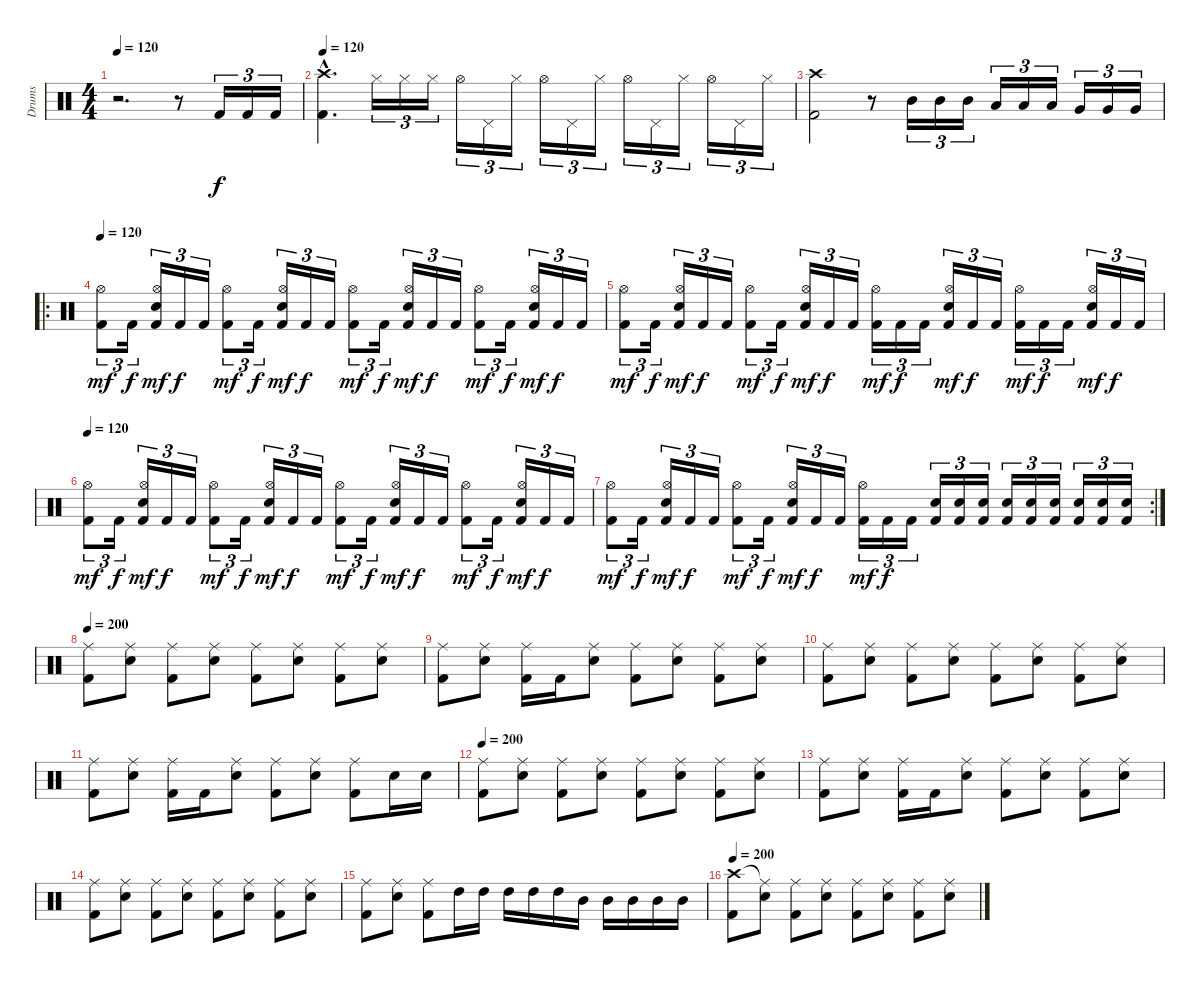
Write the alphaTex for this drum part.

\track ("Drums" "Drums") {instrument percussion}
\staff {score}
\articulation defaults
\ts (4 4)
\tempo 120
\clef neutral
\ks c
r.2{d dy f} r.8{volume 13} "Kick (hit) 2".16{tu (3 2)} "Kick (hit) 2".16{tu (3 2)} "Kick (hit) 2".16{tu (3 2)} |
\tempo 120
("Crash high (hit)"{hac} "Kick (hit) 2"{hac}).4{d} "Hi-Hat (closed)".16{tu (3 2)} "Hi-Hat (closed)".16{tu (3 2)} "Hi-Hat (closed)".16{tu (3 2)} "Hi-Hat (open)".16{tu (3 2)} "Pedal Hi-Hat (hit)".16{tu (3 2)} "Hi-Hat (closed)".16{tu (3 2)} "Hi-Hat (open)".16{tu (3 2)} "Pedal Hi-Hat (hit)".16{tu (3 2)} "Hi-Hat (closed)".16{tu (3 2)} "Hi-Hat (open)".16{tu (3 2)} "Pedal Hi-Hat (hit)".16{tu (3 2)} "Hi-Hat (closed)".16{tu (3 2)} "Hi-Hat (open)".16{tu (3 2)} "Pedal Hi-Hat (hit)".16{tu (3 2)} "Hi-Hat (closed)".16{tu (3 2)} |
("Crash high (hit)" "Kick (hit) 2").2 r.8 "Mid Tom (hit)".16{tu (3 2)} "Mid Tom (hit)".16{tu (3 2)} "Mid Tom (hit)".16{tu (3 2)} "Low Tom (hit)".16{tu (3 2)} "Low Tom (hit)".16{tu (3 2)} "Low Tom (hit)".16{tu (3 2)} "Very Low Tom (hit)".16{tu (3 2)} "Very Low Tom (hit)".16{tu (3 2)} "Very Low Tom (hit)".16{tu (3 2)} |
\ro
\tempo 120
("Hi-Hat (open)" "Kick (hit) 2").8{tu (3 2) dy mf} "Kick (hit) 2".16{tu (3 2) dy f} ("Hi-Hat (open)" "Electric Snare (hit)" "Kick (hit) 2").16{tu (3 2) dy mf} "Kick (hit) 2".16{tu (3 2) dy f} "Kick (hit) 2".16{tu (3 2)} ("Hi-Hat (open)" "Kick (hit) 2").8{tu (3 2) dy mf} "Kick (hit) 2".16{tu (3 2) dy f} ("Hi-Hat (open)" "Electric Snare (hit)" "Kick (hit) 2").16{tu (3 2) dy mf} "Kick (hit) 2".16{tu (3 2) dy f} "Kick (hit) 2".16{tu (3 2)} ("Hi-Hat (open)" "Kick (hit) 2").8{tu (3 2) dy mf} "Kick (hit) 2".16{tu (3 2) dy f} ("Hi-Hat (open)" "Electric Snare (hit)" "Kick (hit) 2").16{tu (3 2) dy mf} "Kick (hit) 2".16{tu (3 2) dy f} "Kick (hit) 2".16{tu (3 2)} ("Hi-Hat (open)" "Kick (hit) 2").8{tu (3 2) dy mf} "Kick (hit) 2".16{tu (3 2) dy f} ("Hi-Hat (open)" "Electric Snare (hit)" "Kick (hit) 2").16{tu (3 2) dy mf} "Kick (hit) 2".16{tu (3 2) dy f} "Kick (hit) 2".16{tu (3 2)} |
("Hi-Hat (open)" "Kick (hit) 2").8{tu (3 2) dy mf} "Kick (hit) 2".16{tu (3 2) dy f} ("Hi-Hat (open)" "Electric Snare (hit)" "Kick (hit) 2").16{tu (3 2) dy mf} "Kick (hit) 2".16{tu (3 2) dy f} "Kick (hit) 2".16{tu (3 2)} ("Hi-Hat (open)" "Kick (hit) 2").8{tu (3 2) dy mf} "Kick (hit) 2".16{tu (3 2) dy f} ("Hi-Hat (open)" "Electric Snare (hit)" "Kick (hit) 2").16{tu (3 2) dy mf} "Kick (hit) 2".16{tu (3 2) dy f} "Kick (hit) 2".16{tu (3 2)} ("Hi-Hat (open)" "Kick (hit) 2").16{tu (3 2) dy mf} "Kick (hit) 2".16{tu (3 2) dy f} "Kick (hit) 2".16{tu (3 2)} ("Hi-Hat (open)" "Electric Snare (hit)" "Kick (hit) 2").16{tu (3 2) dy mf} "Kick (hit) 2".16{tu (3 2) dy f} "Kick (hit) 2".16{tu (3 2)} ("Hi-Hat (open)" "Kick (hit) 2").16{tu (3 2) dy mf} "Kick (hit) 2".16{tu (3 2) dy f} "Kick (hit) 2".16{tu (3 2)} ("Hi-Hat (open)" "Electric Snare (hit)" "Kick (hit) 2").16{tu (3 2) dy mf} "Kick (hit) 2".16{tu (3 2) dy f} "Kick (hit) 2".16{tu (3 2)} |
\tempo 120
("Hi-Hat (open)" "Kick (hit) 2").8{tu (3 2) dy mf} "Kick (hit) 2".16{tu (3 2) dy f} ("Hi-Hat (open)" "Electric Snare (hit)" "Kick (hit) 2").16{tu (3 2) dy mf} "Kick (hit) 2".16{tu (3 2) dy f} "Kick (hit) 2".16{tu (3 2)} ("Hi-Hat (open)" "Kick (hit) 2").8{tu (3 2) dy mf} "Kick (hit) 2".16{tu (3 2) dy f} ("Hi-Hat (open)" "Electric Snare (hit)" "Kick (hit) 2").16{tu (3 2) dy mf} "Kick (hit) 2".16{tu (3 2) dy f} "Kick (hit) 2".16{tu (3 2)} ("Hi-Hat (open)" "Kick (hit) 2").8{tu (3 2) dy mf} "Kick (hit) 2".16{tu (3 2) dy f} ("Hi-Hat (open)" "Electric Snare (hit)" "Kick (hit) 2").16{tu (3 2) dy mf} "Kick (hit) 2".16{tu (3 2) dy f} "Kick (hit) 2".16{tu (3 2)} ("Hi-Hat (open)" "Kick (hit) 2").8{tu (3 2) dy mf} "Kick (hit) 2".16{tu (3 2) dy f} ("Hi-Hat (open)" "Electric Snare (hit)" "Kick (hit) 2").16{tu (3 2) dy mf} "Kick (hit) 2".16{tu (3 2) dy f} "Kick (hit) 2".16{tu (3 2)} |
\rc 2
("Hi-Hat (open)" "Kick (hit) 2").8{tu (3 2) dy mf} "Kick (hit) 2".16{tu (3 2) dy f} ("Hi-Hat (open)" "Electric Snare (hit)" "Kick (hit) 2").16{tu (3 2) dy mf} "Kick (hit) 2".16{tu (3 2) dy f} "Kick (hit) 2".16{tu (3 2)} ("Hi-Hat (open)" "Kick (hit) 2").8{tu (3 2) dy mf} "Kick (hit) 2".16{tu (3 2) dy f} ("Hi-Hat (open)" "Electric Snare (hit)" "Kick (hit) 2").16{tu (3 2) dy mf} "Kick (hit) 2".16{tu (3 2) dy f} "Kick (hit) 2".16{tu (3 2)} ("Hi-Hat (open)" "Kick (hit) 2").16{tu (3 2) dy mf} "Kick (hit) 2".16{tu (3 2) dy f} "Kick (hit) 2".16{tu (3 2)} ("Electric Snare (hit)" "Kick (hit) 2").16{tu (3 2)} ("Electric Snare (hit)" "Kick (hit) 2").16{tu (3 2)} ("Electric Snare (hit)" "Kick (hit) 2").16{tu (3 2)} ("Electric Snare (hit)" "Kick (hit) 2").16{tu (3 2)} ("Electric Snare (hit)" "Kick (hit) 2").16{tu (3 2)} ("Electric Snare (hit)" "Kick (hit) 2").16{tu (3 2)} ("Electric Snare (hit)" "Kick (hit) 2").16{tu (3 2)} ("Electric Snare (hit)" "Kick (hit) 2").16{tu (3 2)} ("Electric Snare (hit)" "Kick (hit) 2").16{tu (3 2)} |
\tempo 200
("Ride (middle)" "Kick (hit) 2").8 ("Ride (middle)" "Electric Snare (hit)").8 ("Ride (middle)" "Kick (hit) 2").8 ("Ride (middle)" "Electric Snare (hit)").8 ("Ride (middle)" "Kick (hit) 2").8 ("Ride (middle)" "Electric Snare (hit)").8 ("Ride (middle)" "Kick (hit) 2").8 ("Ride (middle)" "Electric Snare (hit)").8 |
("Ride (middle)" "Kick (hit) 2").8 ("Ride (middle)" "Electric Snare (hit)").8 ("Ride (middle)" "Kick (hit) 2").16 "Kick (hit) 2".16 ("Ride (middle)" "Electric Snare (hit)").8 ("Ride (middle)" "Kick (hit) 2").8 ("Ride (middle)" "Electric Snare (hit)").8 ("Ride (middle)" "Kick (hit) 2").8 ("Ride (middle)" "Electric Snare (hit)").8 |
("Ride (middle)" "Kick (hit) 2").8 ("Ride (middle)" "Electric Snare (hit)").8 ("Ride (middle)" "Kick (hit) 2").8 ("Ride (middle)" "Electric Snare (hit)").8 ("Ride (middle)" "Kick (hit) 2").8 ("Ride (middle)" "Electric Snare (hit)").8 ("Ride (middle)" "Kick (hit) 2").8 ("Ride (middle)" "Electric Snare (hit)").8 |
("Ride (middle)" "Kick (hit) 2").8 ("Ride (middle)" "Electric Snare (hit)").8 ("Ride (middle)" "Kick (hit) 2").16 "Kick (hit) 2".16 ("Ride (middle)" "Electric Snare (hit)").8 ("Ride (middle)" "Kick (hit) 2").8 ("Ride (middle)" "Electric Snare (hit)").8 ("Ride (middle)" "Kick (hit) 2").8 "Electric Snare (hit)".16 "Electric Snare (hit)".16 |
\tempo 200
("Ride (middle)" "Kick (hit) 2").8 ("Ride (middle)" "Electric Snare (hit)").8 ("Ride (middle)" "Kick (hit) 2").8 ("Ride (middle)" "Electric Snare (hit)").8 ("Ride (middle)" "Kick (hit) 2").8 ("Ride (middle)" "Electric Snare (hit)").8 ("Ride (middle)" "Kick (hit) 2").8 ("Ride (middle)" "Electric Snare (hit)").8 |
("Ride (middle)" "Kick (hit) 2").8 ("Ride (middle)" "Electric Snare (hit)").8 ("Ride (middle)" "Kick (hit) 2").16 "Kick (hit) 2".16 ("Ride (middle)" "Electric Snare (hit)").8 ("Ride (middle)" "Kick (hit) 2").8 ("Ride (middle)" "Electric Snare (hit)").8 ("Ride (middle)" "Kick (hit) 2").8 ("Ride (middle)" "Electric Snare (hit)").8 |
("Ride (middle)" "Kick (hit) 2").8 ("Ride (middle)" "Electric Snare (hit)").8 ("Ride (middle)" "Kick (hit) 2").8 ("Ride (middle)" "Electric Snare (hit)").8 ("Ride (middle)" "Kick (hit) 2").8 ("Ride (middle)" "Electric Snare (hit)").8 ("Ride (middle)" "Kick (hit) 2").8 ("Ride (middle)" "Electric Snare (hit)").8 |
("Ride (middle)" "Kick (hit) 2").8 ("Ride (middle)" "Electric Snare (hit)").8 ("Ride (middle)" "Kick (hit) 2").8 "High Tom (hit)".16 "High Tom (hit)".16 "High Tom (hit)".16 "High Tom (hit)".16 "High Tom (hit)".16 "Mid Tom (hit)".16 "Mid Tom (hit)".16 "Mid Tom (hit)".16 "Mid Tom (hit)".16 "Mid Tom (hit)".16 |
\tempo 200
("Crash high (hit)" "Kick (hit) 2").8 ("Ride (middle)"{t} "Electric Snare (hit)").8 ("Ride (middle)" "Kick (hit) 2").8 ("Ride (middle)" "Electric Snare (hit)").8 ("Ride (middle)" "Kick (hit) 2").8 ("Ride (middle)" "Electric Snare (hit)").8 ("Ride (middle)" "Kick (hit) 2").8 ("Ride (middle)" "Electric Snare (hit)").8
